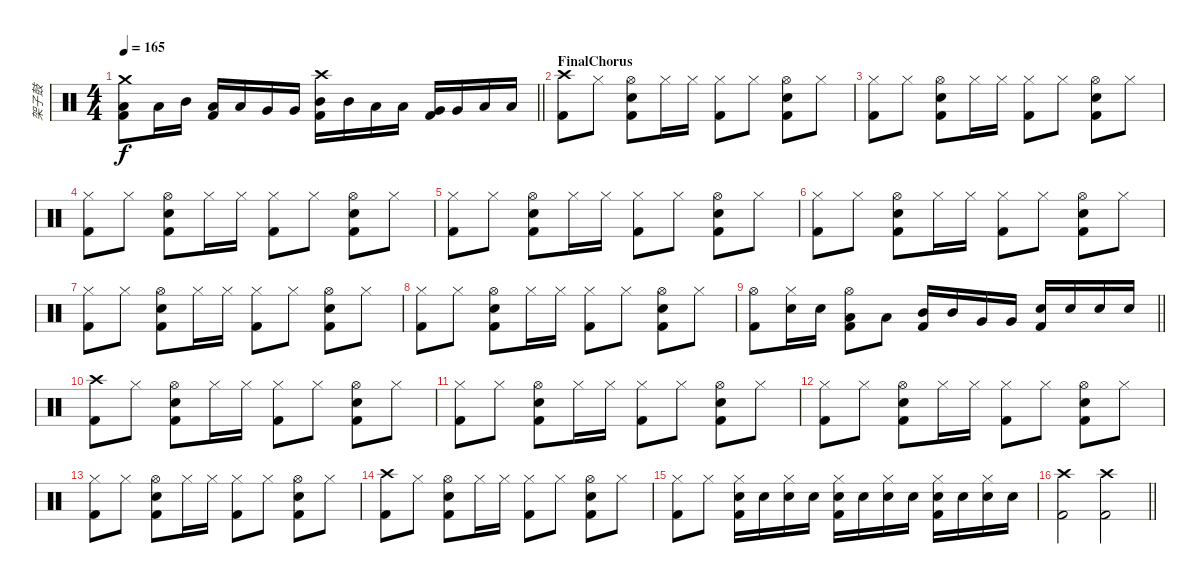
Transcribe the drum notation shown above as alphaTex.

\track ("架子鼓" "架子鼓") {instrument percussion}
\staff {score}
\articulation defaults
\ts (4 4)
\tempo 165
\clef neutral
\barLineRight lightlight
\ks c
("Crash medium (hit)" "Low Tom (hit)" "Kick (hit) 2").8{dy f} "Low Tom (hit)".16 "Mid Tom (hit)".16 ("Low Tom (hit)" "Kick (hit) 2").16 "Low Tom (hit)".16 "Very Low Tom (hit)".16 "Very Low Tom (hit)".16 ("Crash high (hit)" "Mid Tom (hit)" "Kick (hit) 2").16 "Mid Tom (hit)".16 "Low Tom (hit)".16 "Low Tom (hit)".16 ("Very Low Tom (hit)" "Kick (hit) 2").16 "Very Low Tom (hit)".16 "Low Floor Tom (hit)".16 "Low Floor Tom (hit)".16 |
\section ("" "FinalChorus")
("Crash high (hit)" "Kick (hit) 2").8 "Hi-Hat (closed)".8 ("Hi-Hat (open)" "Electric Snare (hit)" "Kick (hit) 2").8 "Hi-Hat (closed)".16 "Hi-Hat (closed)".16 ("Hi-Hat (closed)" "Kick (hit) 2").8 "Hi-Hat (closed)".8 ("Hi-Hat (open)" "Electric Snare (hit)" "Kick (hit) 2").8 "Hi-Hat (closed)".8 |
("Hi-Hat (closed)" "Kick (hit) 2").8 "Hi-Hat (closed)".8 ("Hi-Hat (open)" "Electric Snare (hit)" "Kick (hit) 2").8 "Hi-Hat (closed)".16 "Hi-Hat (closed)".16 ("Hi-Hat (closed)" "Kick (hit) 2").8 "Hi-Hat (closed)".8 ("Hi-Hat (open)" "Electric Snare (hit)" "Kick (hit) 2").8 "Hi-Hat (closed)".8 |
("Hi-Hat (closed)" "Kick (hit) 2").8 "Hi-Hat (closed)".8 ("Hi-Hat (open)" "Electric Snare (hit)" "Kick (hit) 2").8 "Hi-Hat (closed)".16 "Hi-Hat (closed)".16 ("Hi-Hat (closed)" "Kick (hit) 2").8 "Hi-Hat (closed)".8 ("Hi-Hat (open)" "Electric Snare (hit)" "Kick (hit) 2").8 "Hi-Hat (closed)".8 |
("Hi-Hat (closed)" "Kick (hit) 2").8 "Hi-Hat (closed)".8 ("Hi-Hat (open)" "Electric Snare (hit)" "Kick (hit) 2").8 "Hi-Hat (closed)".16 "Hi-Hat (closed)".16 ("Hi-Hat (closed)" "Kick (hit) 2").8 "Hi-Hat (closed)".8 ("Hi-Hat (open)" "Electric Snare (hit)" "Kick (hit) 2").8 "Hi-Hat (closed)".8 |
("Hi-Hat (closed)" "Kick (hit) 2").8 "Hi-Hat (closed)".8 ("Hi-Hat (open)" "Electric Snare (hit)" "Kick (hit) 2").8 "Hi-Hat (closed)".16 "Hi-Hat (closed)".16 ("Hi-Hat (closed)" "Kick (hit) 2").8 "Hi-Hat (closed)".8 ("Hi-Hat (open)" "Electric Snare (hit)" "Kick (hit) 2").8 "Hi-Hat (closed)".8 |
("Hi-Hat (closed)" "Kick (hit) 2").8 "Hi-Hat (closed)".8 ("Hi-Hat (open)" "Electric Snare (hit)" "Kick (hit) 2").8 "Hi-Hat (closed)".16 "Hi-Hat (closed)".16 ("Hi-Hat (closed)" "Kick (hit) 2").8 "Hi-Hat (closed)".8 ("Hi-Hat (open)" "Electric Snare (hit)" "Kick (hit) 2").8 "Hi-Hat (closed)".8 |
("Hi-Hat (closed)" "Kick (hit) 2").8 "Hi-Hat (closed)".8 ("Hi-Hat (open)" "Electric Snare (hit)" "Kick (hit) 2").8 "Hi-Hat (closed)".16 "Hi-Hat (closed)".16 ("Hi-Hat (closed)" "Kick (hit) 2").8 "Hi-Hat (closed)".8 ("Hi-Hat (open)" "Electric Snare (hit)" "Kick (hit) 2").8 "Hi-Hat (closed)".8 |
\barLineRight lightlight
("Hi-Hat (open)" "Kick (hit) 2").8 ("Hi-Hat (closed)" "Electric Snare (hit)").16 "Electric Snare (hit)".16 ("Hi-Hat (open)" "Low Tom (hit)" "Kick (hit) 2").8 "Low Tom (hit)".8 ("Mid Tom (hit)" "Kick (hit) 2").16 "Mid Tom (hit)".16 "Very Low Tom (hit)".16 "Very Low Tom (hit)".16 ("Snare (hit) 2" "Kick (hit) 2").16 "Snare (hit) 2".16 "Snare (hit) 2".16 "Snare (hit) 2".16 |
("Crash high (hit)" "Kick (hit) 2").8 "Hi-Hat (closed)".8 ("Hi-Hat (open)" "Electric Snare (hit)" "Kick (hit) 2").8 "Hi-Hat (closed)".16 "Hi-Hat (closed)".16 ("Hi-Hat (closed)" "Kick (hit) 2").8 "Hi-Hat (closed)".8 ("Hi-Hat (open)" "Electric Snare (hit)" "Kick (hit) 2").8 "Hi-Hat (closed)".8 |
("Hi-Hat (closed)" "Kick (hit) 2").8 "Hi-Hat (closed)".8 ("Hi-Hat (open)" "Electric Snare (hit)" "Kick (hit) 2").8 "Hi-Hat (closed)".16 "Hi-Hat (closed)".16 ("Hi-Hat (closed)" "Kick (hit) 2").8 "Hi-Hat (closed)".8 ("Hi-Hat (open)" "Electric Snare (hit)" "Kick (hit) 2").8 "Hi-Hat (closed)".8 |
("Hi-Hat (closed)" "Kick (hit) 2").8 "Hi-Hat (closed)".8 ("Hi-Hat (open)" "Electric Snare (hit)" "Kick (hit) 2").8 "Hi-Hat (closed)".16 "Hi-Hat (closed)".16 ("Hi-Hat (closed)" "Kick (hit) 2").8 "Hi-Hat (closed)".8 ("Hi-Hat (open)" "Electric Snare (hit)" "Kick (hit) 2").8 "Hi-Hat (closed)".8 |
("Hi-Hat (closed)" "Kick (hit) 2").8 "Hi-Hat (closed)".8 ("Hi-Hat (open)" "Electric Snare (hit)" "Kick (hit) 2").8 "Hi-Hat (closed)".16 "Hi-Hat (closed)".16 ("Hi-Hat (closed)" "Kick (hit) 2").8 "Hi-Hat (closed)".8 ("Hi-Hat (open)" "Electric Snare (hit)" "Kick (hit) 2").8 "Hi-Hat (closed)".8 |
("Crash high (hit)" "Kick (hit) 2").8 "Hi-Hat (closed)".8 ("Hi-Hat (open)" "Electric Snare (hit)" "Kick (hit) 2").8 "Hi-Hat (closed)".16 "Hi-Hat (closed)".16 ("Hi-Hat (closed)" "Kick (hit) 2").8 "Hi-Hat (closed)".8 ("Hi-Hat (open)" "Electric Snare (hit)" "Kick (hit) 2").8 "Hi-Hat (closed)".8 |
("Hi-Hat (closed)" "Kick (hit) 2").8 "Hi-Hat (closed)".8 ("Hi-Hat (closed)" "Electric Snare (hit)" "Kick (hit) 2").16 "Electric Snare (hit)".16 ("Hi-Hat (closed)" "Electric Snare (hit)").16 "Electric Snare (hit)".16 ("Hi-Hat (closed)" "Electric Snare (hit)" "Kick (hit) 2").16 "Electric Snare (hit)".16 ("Hi-Hat (closed)" "Electric Snare (hit)").16 "Electric Snare (hit)".16 ("Hi-Hat (closed)" "Electric Snare (hit)" "Kick (hit) 2").16 "Electric Snare (hit)".16 ("Hi-Hat (closed)" "Electric Snare (hit)").16 "Electric Snare (hit)".16 |
\barLineRight lightlight
("Crash high (hit)" "Kick (hit) 2").2 ("Crash high (hit)" "Kick (hit) 2").2
